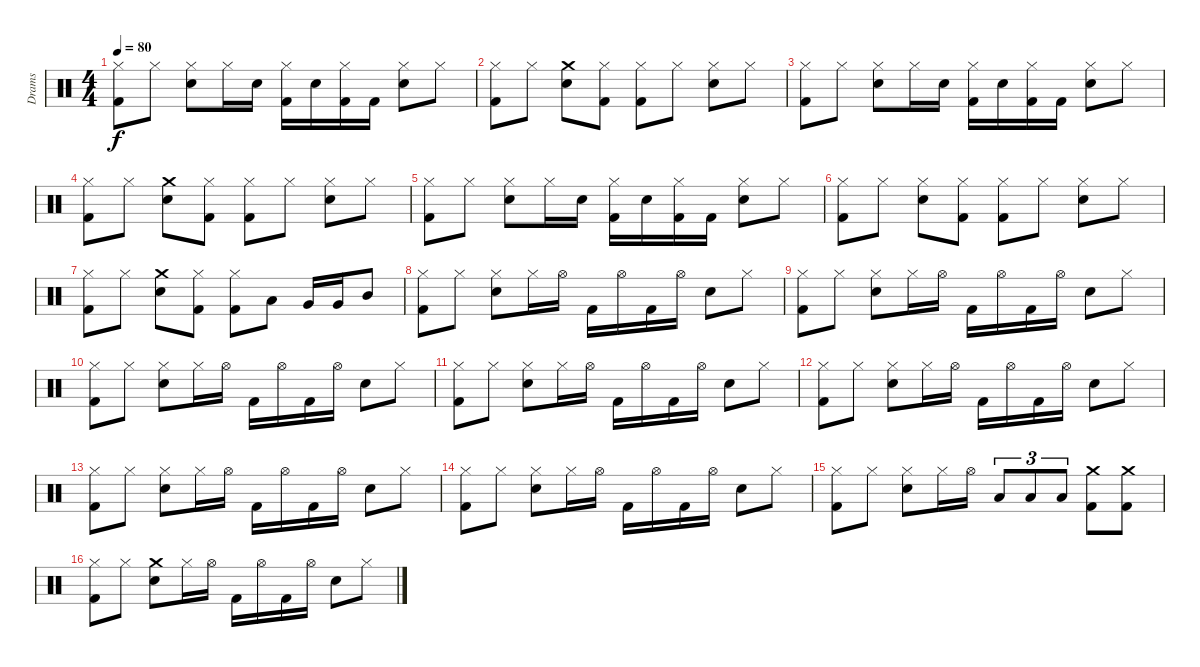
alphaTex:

\track ("Drams" "Drams") {instrument percussion}
\staff {score}
\articulation defaults
\ts (4 4)
\tempo 80
\clef neutral
\ks aminor
("Hi-Hat (closed)" "Kick (hit) 2").8{dy f} "Hi-Hat (closed)".8 ("Hi-Hat (closed)" "Electric Snare (hit)").8 "Hi-Hat (closed)".16 "Electric Snare (hit)".16 ("Kick (hit) 2" "Hi-Hat (closed)").16 "Electric Snare (hit)".16 ("Kick (hit) 2" "Hi-Hat (closed)").16 "Kick (hit) 2".16 ("Electric Snare (hit)" "Hi-Hat (closed)").8 "Hi-Hat (closed)".8 |
("Hi-Hat (closed)" "Kick (hit) 2").8 "Hi-Hat (closed)".8 ("Crash medium (hit)" "Electric Snare (hit)").8 ("Hi-Hat (closed)" "Kick (hit) 2").8 ("Hi-Hat (closed)" "Kick (hit) 2").8 "Hi-Hat (closed)".8 ("Hi-Hat (closed)" "Electric Snare (hit)").8 "Hi-Hat (closed)".8 |
("Hi-Hat (closed)" "Kick (hit) 2").8 "Hi-Hat (closed)".8 ("Hi-Hat (closed)" "Electric Snare (hit)").8 "Hi-Hat (closed)".16 "Electric Snare (hit)".16 ("Kick (hit) 2" "Hi-Hat (closed)").16 "Electric Snare (hit)".16 ("Kick (hit) 2" "Hi-Hat (closed)").16 "Kick (hit) 2".16 ("Electric Snare (hit)" "Hi-Hat (closed)").8 "Hi-Hat (closed)".8 |
("Hi-Hat (closed)" "Kick (hit) 2").8 "Hi-Hat (closed)".8 ("Crash medium (hit)" "Electric Snare (hit)").8 ("Hi-Hat (closed)" "Kick (hit) 2").8 ("Hi-Hat (closed)" "Kick (hit) 2").8 "Hi-Hat (closed)".8 ("Hi-Hat (closed)" "Electric Snare (hit)").8 "Hi-Hat (closed)".8 |
("Hi-Hat (closed)" "Kick (hit) 2").8 "Hi-Hat (closed)".8 ("Hi-Hat (closed)" "Electric Snare (hit)").8 "Hi-Hat (closed)".16 "Electric Snare (hit)".16 ("Kick (hit) 2" "Hi-Hat (closed)").16 "Electric Snare (hit)".16 ("Kick (hit) 2" "Hi-Hat (closed)").16 "Kick (hit) 2".16 ("Electric Snare (hit)" "Hi-Hat (closed)").8 "Hi-Hat (closed)".8 |
("Hi-Hat (closed)" "Kick (hit) 2").8 "Hi-Hat (closed)".8 ("Hi-Hat (closed)" "Electric Snare (hit)").8 ("Hi-Hat (closed)" "Kick (hit) 2").8 ("Hi-Hat (closed)" "Kick (hit) 2").8 "Hi-Hat (closed)".8 ("Hi-Hat (closed)" "Electric Snare (hit)").8 "Hi-Hat (closed)".8 |
("Hi-Hat (closed)" "Kick (hit) 2").8 "Hi-Hat (closed)".8 ("Crash medium (hit)" "Electric Snare (hit)").8 ("Hi-Hat (closed)" "Kick (hit) 2").8 ("Hi-Hat (closed)" "Kick (hit) 2").8 "Low Floor Tom (hit)".8 "Very Low Tom (hit)".16 "Very Low Tom (hit)".16 "Mid Tom (hit)".8 |
("Hi-Hat (closed)" "Kick (hit) 2").8 "Hi-Hat (closed)".8 ("Hi-Hat (closed)" "Electric Snare (hit)").8 "Hi-Hat (closed)".16 "Hi-Hat (open)".16 "Kick (hit) 2".16 "Hi-Hat (open)".16 "Kick (hit) 2".16 "Hi-Hat (open)".16 "Electric Snare (hit)".8 "Hi-Hat (closed)".8 |
("Hi-Hat (closed)" "Kick (hit) 2").8 "Hi-Hat (closed)".8 ("Hi-Hat (closed)" "Electric Snare (hit)").8 "Hi-Hat (closed)".16 "Hi-Hat (open)".16 "Kick (hit) 2".16 "Hi-Hat (open)".16 "Kick (hit) 2".16 "Hi-Hat (open)".16 "Electric Snare (hit)".8 "Hi-Hat (closed)".8 |
("Hi-Hat (closed)" "Kick (hit) 2").8 "Hi-Hat (closed)".8 ("Hi-Hat (closed)" "Electric Snare (hit)").8 "Hi-Hat (closed)".16 "Hi-Hat (open)".16 "Kick (hit) 2".16 "Hi-Hat (open)".16 "Kick (hit) 2".16 "Hi-Hat (open)".16 "Electric Snare (hit)".8 "Hi-Hat (closed)".8 |
("Hi-Hat (closed)" "Kick (hit) 2").8 "Hi-Hat (closed)".8 ("Hi-Hat (closed)" "Electric Snare (hit)").8 "Hi-Hat (closed)".16 "Hi-Hat (open)".16 "Kick (hit) 2".16 "Hi-Hat (open)".16 "Kick (hit) 2".16 "Hi-Hat (open)".16 "Electric Snare (hit)".8 "Hi-Hat (closed)".8 |
("Hi-Hat (closed)" "Kick (hit) 2").8 "Hi-Hat (closed)".8 ("Hi-Hat (closed)" "Electric Snare (hit)").8 "Hi-Hat (closed)".16 "Hi-Hat (open)".16 "Kick (hit) 2".16 "Hi-Hat (open)".16 "Kick (hit) 2".16 "Hi-Hat (open)".16 "Electric Snare (hit)".8 "Hi-Hat (closed)".8 |
("Hi-Hat (closed)" "Kick (hit) 2").8 "Hi-Hat (closed)".8 ("Hi-Hat (closed)" "Electric Snare (hit)").8 "Hi-Hat (closed)".16 "Hi-Hat (open)".16 "Kick (hit) 2".16 "Hi-Hat (open)".16 "Kick (hit) 2".16 "Hi-Hat (open)".16 "Electric Snare (hit)".8 "Hi-Hat (closed)".8 |
("Hi-Hat (closed)" "Kick (hit) 2").8 "Hi-Hat (closed)".8 ("Hi-Hat (closed)" "Electric Snare (hit)").8 "Hi-Hat (closed)".16 "Hi-Hat (open)".16 "Kick (hit) 2".16 "Hi-Hat (open)".16 "Kick (hit) 2".16 "Hi-Hat (open)".16 "Electric Snare (hit)".8 "Hi-Hat (closed)".8 |
("Hi-Hat (closed)" "Kick (hit) 2").8 "Hi-Hat (closed)".8 ("Hi-Hat (closed)" "Electric Snare (hit)").8 "Hi-Hat (closed)".16 "Hi-Hat (open)".16 "Low Tom (hit)".8{tu (3 2)} "Low Tom (hit)".8{tu (3 2)} "Low Tom (hit)".8{tu (3 2)} ("Crash medium (hit)" "Kick (hit) 2").8 ("Crash medium (hit)" "Kick (hit) 2").8 |
("Hi-Hat (closed)" "Kick (hit) 2").8 "Hi-Hat (closed)".8 ("Crash medium (hit)" "Electric Snare (hit)").8 "Hi-Hat (closed)".16 "Hi-Hat (open)".16 "Kick (hit) 2".16 "Hi-Hat (open)".16 "Kick (hit) 2".16 "Hi-Hat (open)".16 "Electric Snare (hit)".8 "Hi-Hat (closed)".8
